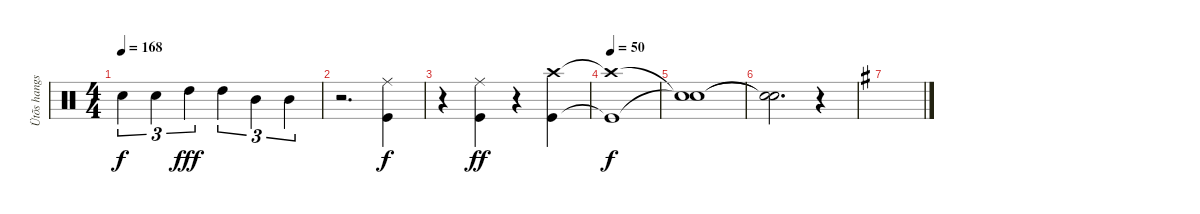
\track ("Ütõs hangszer" "Ütõs hangs") {instrument percussion}
\staff {score}
\articulation defaults
\ts (4 4)
\tempo 168
\clef neutral
\ks c "Electric Snare (hit)".4{tu (3 2) dy f} "Electric Snare (hit)".4{tu (3 2)} "High Tom (hit)".4{tu (3 2) dy fff} "High Tom (hit)".4{tu (3 2)} "Mid Tom (hit)".4{tu (3 2)} "Mid Tom (hit)".4{tu (3 2)}
|
r.2{d} ("Ride (middle)" "Kick (hit)").4{dy f} |
r.4 ("Ride (middle)" "Kick (hit)").4{dy ff} r.4 ("Crash high (hit)" "Kick (hit)").4 |
\tempo 50
("Crash high (hit)"{t} "Kick (hit)"{t}).1{dy f} |
("Snare (hit)"{t} "Snare (hit)"{t}).1 |
("Snare (hit)"{t} "Snare (hit)"{t}).2{d} r.4 |
\ks g
